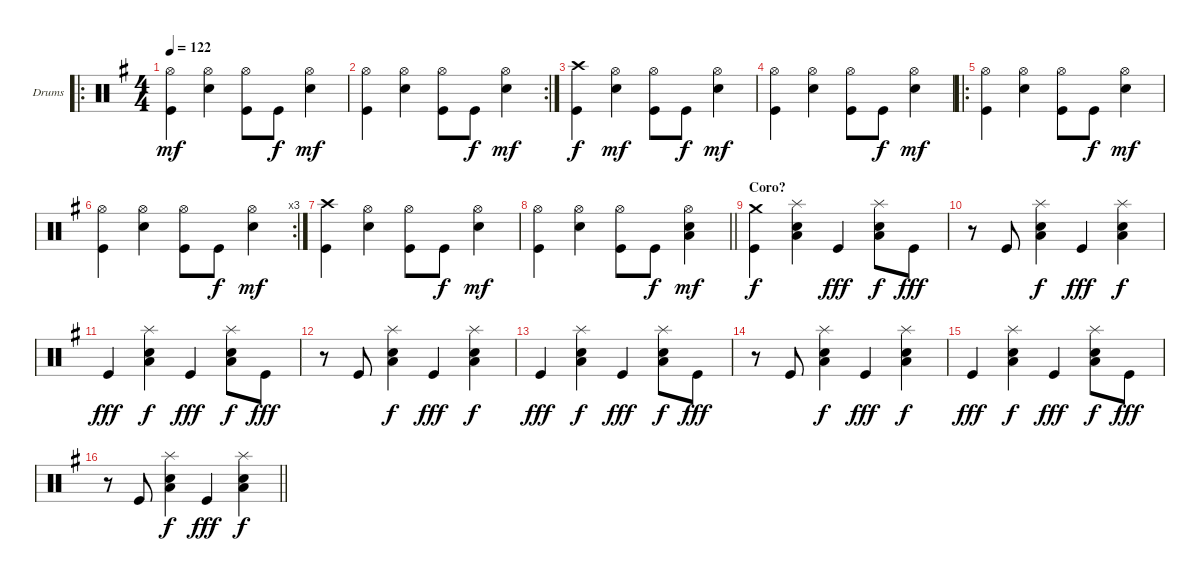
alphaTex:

\bracketExtendMode groupsimilarinstruments
\firstSystemTrackNameOrientation horizontal
\otherSystemsTrackNameOrientation horizontal
\track ("Drumkit" "Drums") {instrument percussion}
\staff {score}
\articulation defaults
\ro
\ts (4 4)
\tempo 122
\clef neutral
\ks g
("Hi-Hat (open)" "Kick (hit)").4{dy mf} ("Hi-Hat (open)" "Snare (hit) 2").4 ("Hi-Hat (open)" "Kick (hit)").8 "Kick (hit)".8{dy f} ("Hi-Hat (open)" "Snare (hit) 2").4{dy mf} |
\rc 2
("Hi-Hat (open)" "Kick (hit)").4 ("Hi-Hat (open)" "Snare (hit) 2").4 ("Hi-Hat (open)" "Kick (hit)").8 "Kick (hit)".8{dy f} ("Hi-Hat (open)" "Snare (hit) 2").4{dy mf} |
("Crash high (hit)" "Kick (hit)").4{dy f} ("Hi-Hat (open)" "Snare (hit) 2").4{dy mf} ("Hi-Hat (open)" "Kick (hit)").8 "Kick (hit)".8{dy f} ("Hi-Hat (open)" "Snare (hit) 2").4{dy mf} |
("Hi-Hat (open)" "Kick (hit)").4 ("Hi-Hat (open)" "Snare (hit) 2").4 ("Hi-Hat (open)" "Kick (hit)").8 "Kick (hit)".8{dy f} ("Hi-Hat (open)" "Snare (hit) 2").4{dy mf} |
\ro
("Hi-Hat (open)" "Kick (hit)").4 ("Hi-Hat (open)" "Snare (hit) 2").4 ("Hi-Hat (open)" "Kick (hit)").8 "Kick (hit)".8{dy f} ("Hi-Hat (open)" "Snare (hit) 2").4{dy mf} |
\rc 3
("Hi-Hat (open)" "Kick (hit)").4 ("Hi-Hat (open)" "Snare (hit) 2").4 ("Hi-Hat (open)" "Kick (hit)").8 "Kick (hit)".8{dy f} ("Hi-Hat (open)" "Snare (hit) 2").4{dy mf} |
("Crash high (hit)" "Kick (hit)").4 ("Hi-Hat (open)" "Snare (hit) 2").4 ("Hi-Hat (open)" "Kick (hit)").8 "Kick (hit)".8{dy f} ("Hi-Hat (open)" "Snare (hit) 2").4{dy mf} |
\barLineRight lightlight
("Hi-Hat (open)" "Kick (hit)").4 ("Hi-Hat (open)" "Snare (hit) 2").4 ("Hi-Hat (open)" "Kick (hit)").8 "Kick (hit)".8{dy f} ("Hi-Hat (open)" "Low Tom (hit)" "Snare (hit) 2").4{dy mf} |
\section ("" "Coro?")
("Crash medium (hit)" "Kick (hit)").4{dy f} ("Splash (hit)" "Low Tom (hit)" "Snare (hit) 2").4 "Kick (hit)".4{dy fff} ("Splash (hit)" "Low Tom (hit)" "Snare (hit) 2").8{dy f} "Kick (hit)".8{dy fff} |
r.8 "Kick (hit)".8 ("Splash (hit)" "Low Tom (hit)" "Snare (hit) 2").4{dy f} "Kick (hit)".4{dy fff} ("Splash (hit)" "Low Tom (hit)" "Snare (hit) 2").4{dy f} |
"Kick (hit)".4{dy fff} ("Splash (hit)" "Low Tom (hit)" "Snare (hit) 2").4{dy f} "Kick (hit)".4{dy fff} ("Splash (hit)" "Low Tom (hit)" "Snare (hit) 2").8{dy f} "Kick (hit)".8{dy fff} |
r.8 "Kick (hit)".8 ("Splash (hit)" "Low Tom (hit)" "Snare (hit) 2").4{dy f} "Kick (hit)".4{dy fff} ("Splash (hit)" "Low Tom (hit)" "Snare (hit) 2").4{dy f} |
"Kick (hit)".4{dy fff} ("Splash (hit)" "Low Tom (hit)" "Snare (hit) 2").4{dy f} "Kick (hit)".4{dy fff} ("Splash (hit)" "Low Tom (hit)" "Snare (hit) 2").8{dy f} "Kick (hit)".8{dy fff} |
r.8 "Kick (hit)".8 ("Splash (hit)" "Low Tom (hit)" "Snare (hit) 2").4{dy f} "Kick (hit)".4{dy fff} ("Splash (hit)" "Low Tom (hit)" "Snare (hit) 2").4{dy f} |
"Kick (hit)".4{dy fff} ("Splash (hit)" "Low Tom (hit)" "Snare (hit) 2").4{dy f} "Kick (hit)".4{dy fff} ("Splash (hit)" "Low Tom (hit)" "Snare (hit) 2").8{dy f} "Kick (hit)".8{dy fff} |
\barLineRight lightlight
r.8 "Kick (hit)".8 ("Splash (hit)" "Low Tom (hit)" "Snare (hit) 2").4{dy f} "Kick (hit)".4{dy fff} ("Splash (hit)" "Low Tom (hit)" "Snare (hit) 2").4{dy f}
